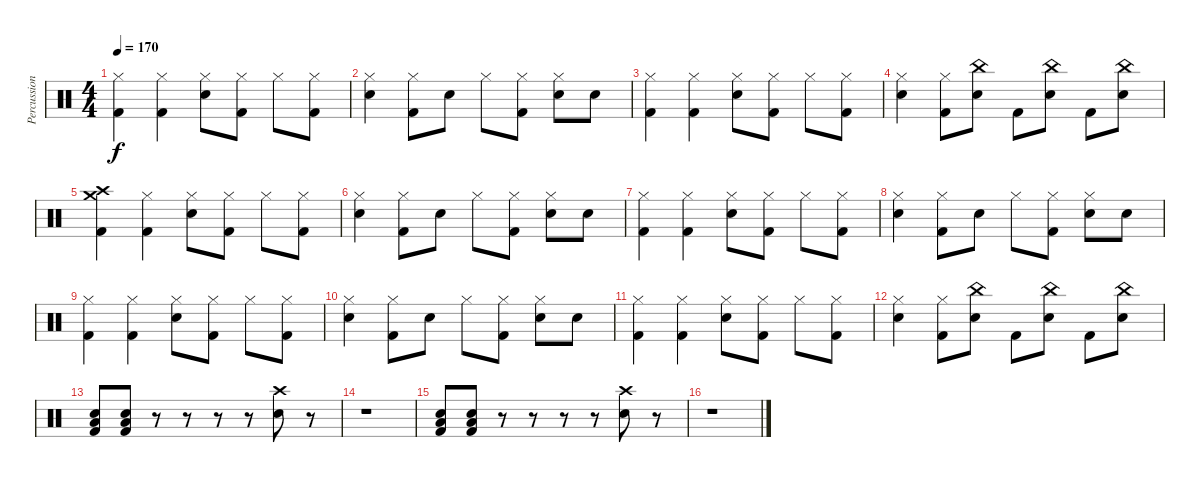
\track ("Percussions" "Percussion") {instrument percussion}
\staff {score}
\articulation defaults
\ts (4 4)
\tempo 170
\clef neutral
\ks c
("Hi-Hat (closed)" "Kick (hit) 2").4{dy f} ("Hi-Hat (closed)" "Kick (hit) 2").4 ("Hi-Hat (closed)" "Electric Snare (hit)").8 ("Hi-Hat (closed)" "Kick (hit) 2").8 "Hi-Hat (closed)".8 ("Hi-Hat (closed)" "Kick (hit) 2").8 |
("Hi-Hat (closed)" "Electric Snare (hit)").4 ("Hi-Hat (closed)" "Kick (hit) 2").8 "Electric Snare (hit)".8 "Hi-Hat (closed)".8 ("Hi-Hat (closed)" "Kick (hit) 2").8 ("Hi-Hat (closed)" "Electric Snare (hit)").8 "Electric Snare (hit)".8 |
("Hi-Hat (closed)" "Kick (hit) 2").4 ("Hi-Hat (closed)" "Kick (hit) 2").4 ("Hi-Hat (closed)" "Electric Snare (hit)").8 ("Hi-Hat (closed)" "Kick (hit) 2").8 "Hi-Hat (closed)".8 ("Hi-Hat (closed)" "Kick (hit) 2").8 |
("Hi-Hat (closed)" "Electric Snare (hit)").4 ("Hi-Hat (closed)" "Kick (hit) 2").8 ("China (hit)" "Electric Snare (hit)").8 "Kick (hit) 2".8 ("China (hit)" "Electric Snare (hit)").8 "Kick (hit) 2".8 ("China (hit)" "Electric Snare (hit)").8 |
("Crash medium (hit)" "Crash high (hit)" "Kick (hit) 2").4 ("Hi-Hat (closed)" "Kick (hit) 2").4 ("Hi-Hat (closed)" "Electric Snare (hit)").8 ("Hi-Hat (closed)" "Kick (hit) 2").8 "Hi-Hat (closed)".8 ("Hi-Hat (closed)" "Kick (hit) 2").8 |
("Hi-Hat (closed)" "Electric Snare (hit)").4 ("Hi-Hat (closed)" "Kick (hit) 2").8 "Electric Snare (hit)".8 "Hi-Hat (closed)".8 ("Hi-Hat (closed)" "Kick (hit) 2").8 ("Hi-Hat (closed)" "Electric Snare (hit)").8 "Electric Snare (hit)".8 |
("Hi-Hat (closed)" "Kick (hit) 2").4 ("Hi-Hat (closed)" "Kick (hit) 2").4 ("Hi-Hat (closed)" "Electric Snare (hit)").8 ("Hi-Hat (closed)" "Kick (hit) 2").8 "Hi-Hat (closed)".8 ("Hi-Hat (closed)" "Kick (hit) 2").8 |
("Hi-Hat (closed)" "Electric Snare (hit)").4 ("Hi-Hat (closed)" "Kick (hit) 2").8 "Electric Snare (hit)".8 "Hi-Hat (closed)".8 ("Hi-Hat (closed)" "Kick (hit) 2").8 ("Hi-Hat (closed)" "Electric Snare (hit)").8 "Electric Snare (hit)".8 |
("Hi-Hat (closed)" "Kick (hit) 2").4 ("Hi-Hat (closed)" "Kick (hit) 2").4 ("Hi-Hat (closed)" "Electric Snare (hit)").8 ("Hi-Hat (closed)" "Kick (hit) 2").8 "Hi-Hat (closed)".8 ("Hi-Hat (closed)" "Kick (hit) 2").8 |
("Hi-Hat (closed)" "Electric Snare (hit)").4 ("Hi-Hat (closed)" "Kick (hit) 2").8 "Electric Snare (hit)".8 "Hi-Hat (closed)".8 ("Hi-Hat (closed)" "Kick (hit) 2").8 ("Hi-Hat (closed)" "Electric Snare (hit)").8 "Electric Snare (hit)".8 |
("Hi-Hat (closed)" "Kick (hit) 2").4 ("Hi-Hat (closed)" "Kick (hit) 2").4 ("Hi-Hat (closed)" "Electric Snare (hit)").8 ("Hi-Hat (closed)" "Kick (hit) 2").8 "Hi-Hat (closed)".8 ("Hi-Hat (closed)" "Kick (hit) 2").8 |
("Hi-Hat (closed)" "Electric Snare (hit)").4 ("Hi-Hat (closed)" "Kick (hit) 2").8 ("China (hit)" "Electric Snare (hit)").8 "Kick (hit) 2".8 ("China (hit)" "Electric Snare (hit)").8 "Kick (hit) 2".8 ("China (hit)" "Electric Snare (hit)").8 |
("Kick (hit) 2" "Electric Snare (hit)" "Low Floor Tom (hit)").8 ("Kick (hit) 2" "Electric Snare (hit)" "Low Floor Tom (hit)").8 r.8 r.8 r.8 r.8 ("Crash high (hit)" "Electric Snare (hit)").8 r.8 |
r.1 |
("Kick (hit) 2" "Electric Snare (hit)" "Low Floor Tom (hit)").8 ("Kick (hit) 2" "Electric Snare (hit)" "Low Floor Tom (hit)").8 r.8 r.8 r.8 r.8 ("Crash high (hit)" "Electric Snare (hit)").8 r.8 |
r.1
